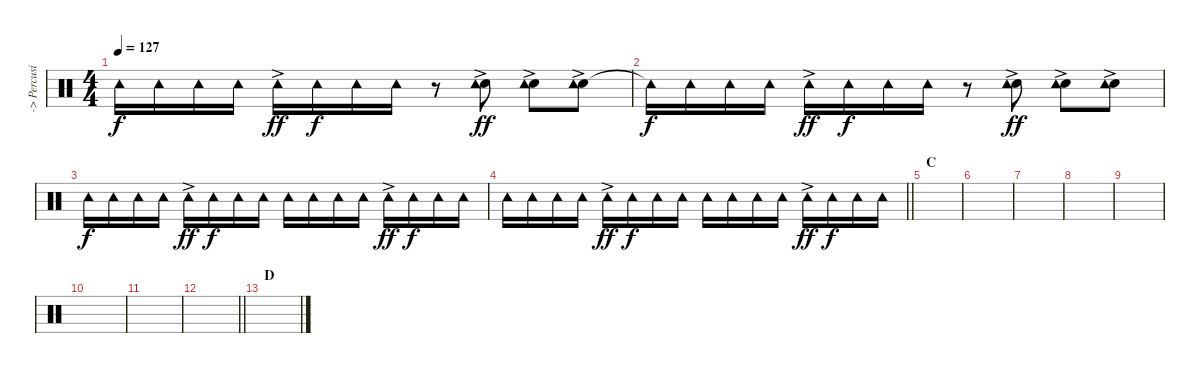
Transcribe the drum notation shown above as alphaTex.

\track ("-> Percusion" "-> Percusi") {instrument percussion}
\staff {score}
\articulation defaults
\ts (4 4)
\tempo 127
\clef neutral
\ks c "Tambourine (hit)".16{dy f} "Tambourine (hit)".16 "Tambourine (hit)".16 "Tambourine (hit)".16 "Tambourine (hit)"{ac}.16{dy ff} "Tambourine (hit)".16{dy f} "Tambourine (hit)".16 "Tambourine (hit)".16
r.8 ("Hand Clap (hit)"{ac} "Tambourine (hit)"{ac}).8{dy ff} ("Hand Clap (hit)"{ac} "Tambourine (hit)"{ac}).8 ("Hand Clap (hit)"{ac} "Tambourine (hit)"{ac}).8 |
"Tambourine (hit)"{t}.16{dy f} "Tambourine (hit)".16 "Tambourine (hit)".16 "Tambourine (hit)".16 "Tambourine (hit)"{ac}.16{dy ff} "Tambourine (hit)".16{dy f} "Tambourine (hit)".16 "Tambourine (hit)".16 r.8 ("Hand Clap (hit)"{ac} "Tambourine (hit)"{ac}).8{dy ff} ("Hand Clap (hit)"{ac} "Tambourine (hit)"{ac}).8 ("Hand Clap (hit)"{ac} "Tambourine (hit)"{ac}).8 |
"Tambourine (hit)".16{dy f} "Tambourine (hit)".16 "Tambourine (hit)".16 "Tambourine (hit)".16 "Tambourine (hit)"{ac}.16{dy ff} "Tambourine (hit)".16{dy f} "Tambourine (hit)".16 "Tambourine (hit)".16 "Tambourine (hit)".16 "Tambourine (hit)".16 "Tambourine (hit)".16 "Tambourine (hit)".16 "Tambourine (hit)"{ac}.16{dy ff} "Tambourine (hit)".16{dy f} "Tambourine (hit)".16 "Tambourine (hit)".16 |
\barLineRight lightlight "Tambourine (hit)".16 "Tambourine (hit)".16 "Tambourine (hit)".16 "Tambourine (hit)".16 "Tambourine (hit)"{ac}.16{dy ff} "Tambourine (hit)".16{dy f} "Tambourine (hit)".16 "Tambourine (hit)".16 "Tambourine (hit)".16 "Tambourine (hit)".16 "Tambourine (hit)".16 "Tambourine (hit)".16 "Tambourine (hit)"{ac}.16{dy ff} "Tambourine (hit)".16{dy f} "Tambourine (hit)".16 "Tambourine (hit)".16
|
\section ("" "C")
|
|
|
|
|
|
|
\barLineRight lightlight
|
\section ("" "D")
